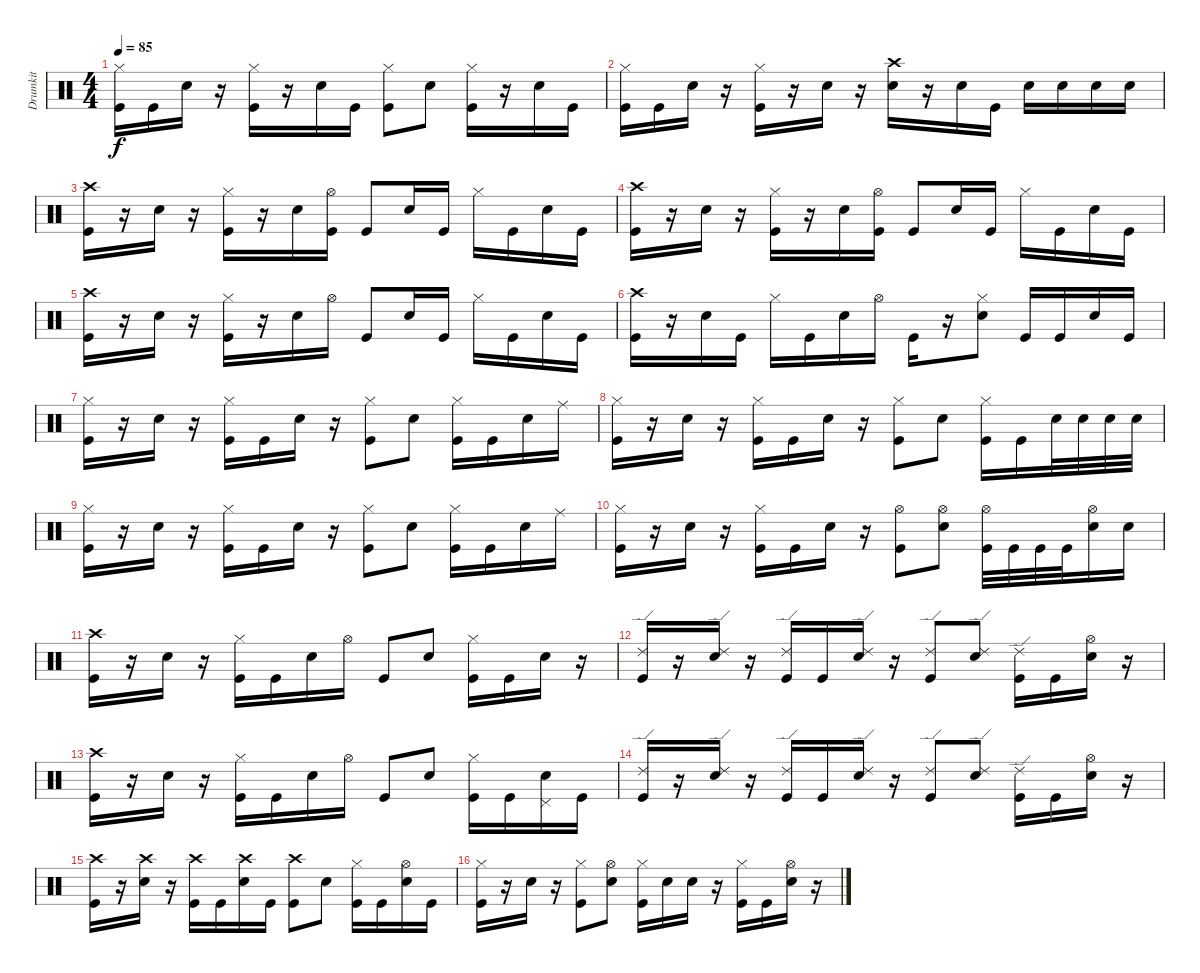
\track ("Drumkit" "Drumkit") {instrument percussion}
\staff {score}
\articulation defaults
\ts (4 4)
\tempo 85
\clef neutral
\ks c
("Kick (hit)" "Hi-Hat (closed)").16{dy f} "Kick (hit)".16 "Snare (hit) 2".16 r.16 ("Kick (hit)" "Hi-Hat (closed)").16 r.16 "Snare (hit) 2".16 "Kick (hit)".16 ("Kick (hit)" "Hi-Hat (closed)").8 "Snare (hit) 2".8 ("Kick (hit)" "Hi-Hat (closed)").16 r.16 "Snare (hit) 2".16 "Kick (hit)".16 |
("Kick (hit)" "Hi-Hat (closed)").16 "Kick (hit)".16 "Snare (hit) 2".16 r.16 ("Kick (hit)" "Hi-Hat (closed)").16 r.16 "Snare (hit) 2".16 r.16 ("Snare (hit) 2" "Crash high (hit)").16 r.16 "Snare (hit) 2".16 "Kick (hit)".16 "Snare (hit) 2".16 "Snare (hit) 2".16 "Snare (hit) 2".16 "Snare (hit) 2".16 |
("Kick (hit)" "Crash high (hit)").16 r.16 "Snare (hit) 2".16 r.16 ("Kick (hit)" "Hi-Hat (closed)").16 r.16 "Snare (hit) 2".16 ("Kick (hit)" "Hi-Hat (open)").16 "Kick (hit)".8 "Snare (hit) 2".16 "Kick (hit)".16 "Hi-Hat (closed)".16 "Kick (hit)".16 "Snare (hit) 2".16 "Kick (hit)".16 |
("Kick (hit)" "Crash high (hit)").16 r.16 "Snare (hit) 2".16 r.16 ("Kick (hit)" "Hi-Hat (closed)").16 r.16 "Snare (hit) 2".16 ("Kick (hit)" "Hi-Hat (open)").16 "Kick (hit)".8 "Snare (hit) 2".16 "Kick (hit)".16 "Hi-Hat (closed)".16 "Kick (hit)".16 "Snare (hit) 2".16 "Kick (hit)".16 |
("Kick (hit)" "Crash high (hit)").16 r.16 "Snare (hit) 2".16 r.16 ("Kick (hit)" "Hi-Hat (closed)").16 r.16 "Snare (hit) 2".16 "Hi-Hat (open)".16 "Kick (hit)".8 "Snare (hit) 2".16 "Kick (hit)".16 "Hi-Hat (closed)".16 "Kick (hit)".16 "Snare (hit) 2".16 "Kick (hit)".16 |
("Kick (hit)" "Crash high (hit)").16 r.16 "Snare (hit) 2".16 "Kick (hit)".16 "Hi-Hat (closed)".16 "Kick (hit)".16 "Snare (hit) 2".16 "Hi-Hat (open)".16 "Kick (hit)".16 r.16 ("Hi-Hat (closed)" "Snare (hit) 2").8 "Kick (hit)".16 "Kick (hit)".16 "Snare (hit) 2".16 "Kick (hit)".16 |
("Kick (hit)" "Hi-Hat (closed)").16 r.16 "Snare (hit) 2".16 r.16 ("Kick (hit)" "Hi-Hat (closed)").16 "Kick (hit)".16 "Snare (hit) 2".16 r.16 ("Kick (hit)" "Hi-Hat (closed)").8 "Snare (hit) 2".8 ("Kick (hit)" "Hi-Hat (closed)").16 "Kick (hit)".16 "Snare (hit) 2".16 "Ride (middle)".16 |
("Kick (hit)" "Hi-Hat (closed)").16 r.16 "Snare (hit) 2".16 r.16 ("Kick (hit)" "Hi-Hat (closed)").16 "Kick (hit)".16 "Snare (hit) 2".16 r.16 ("Kick (hit)" "Hi-Hat (closed)").8 "Snare (hit) 2".8 ("Kick (hit)" "Hi-Hat (closed)").16 "Kick (hit)".16 "Snare (hit) 2".32 "Snare (hit) 2".32 "Snare (hit) 2".32 "Snare (hit) 2".32 |
("Kick (hit)" "Hi-Hat (closed)").16 r.16 "Snare (hit) 2".16 r.16 ("Kick (hit)" "Hi-Hat (closed)").16 "Kick (hit)".16 "Snare (hit) 2".16 r.16 ("Kick (hit)" "Hi-Hat (closed)").8 "Snare (hit) 2".8 ("Kick (hit)" "Hi-Hat (closed)").16 "Kick (hit)".16 "Snare (hit) 2".16 "Ride (middle)".16 |
("Kick (hit)" "Hi-Hat (closed)").16 r.16 "Snare (hit) 2".16 r.16 ("Kick (hit)" "Hi-Hat (closed)").16 "Kick (hit)".16 "Snare (hit) 2".16 r.16 ("Kick (hit)" "Hi-Hat (open)").8 ("Snare (hit) 2" "Hi-Hat (open)").8 ("Kick (hit)" "Hi-Hat (open)").32 "Kick (hit)".32 "Kick (hit)".32 "Kick (hit)".32 ("Snare (hit) 2" "Hi-Hat (open)").16 "Snare (hit) 2".16 |
("Kick (hit)" "Crash high (hit)").16 r.16 "Snare (hit) 2".16 r.16 ("Kick (hit)" "Hi-Hat (closed)").16 "Kick (hit)".16 "Snare (hit) 2".16 "Hi-Hat (open)".16 "Kick (hit)".8 "Snare (hit) 2".8 ("Kick (hit)" "Hi-Hat (closed)").16 "Kick (hit)".16 "Snare (hit) 2".16 r.16 |
("Ride (edge) 2" "Kick (hit)").16 r.16 ("Ride (edge) 2" "Snare (hit) 2").16 r.16 ("Ride (edge) 2" "Kick (hit)").16 "Kick (hit)".16 ("Ride (edge) 2" "Snare (hit) 2").16 r.16 ("Ride (edge) 2" "Kick (hit)").8 ("Ride (edge) 2" "Snare (hit) 2").8 ("Ride (edge) 2" "Kick (hit)").16 "Kick (hit)".16 ("Snare (hit) 2" "Hi-Hat (open)").16 r.16 |
("Kick (hit)" "Crash high (hit)").16 r.16 "Snare (hit) 2".16 r.16 ("Kick (hit)" "Hi-Hat (closed)").16 "Kick (hit)".16 "Snare (hit) 2".16 "Hi-Hat (open)".16 "Kick (hit)".8 "Snare (hit) 2".8 ("Kick (hit)" "Hi-Hat (closed)").16 "Kick (hit)".16 ("Pedal Hi-Hat (hit)" "Snare (hit) 2").16 "Kick (hit)".16 |
("Ride (edge) 2" "Kick (hit)").16 r.16 ("Ride (edge) 2" "Snare (hit) 2").16 r.16 ("Ride (edge) 2" "Kick (hit)").16 "Kick (hit)".16 ("Ride (edge) 2" "Snare (hit) 2").16 r.16 ("Ride (edge) 2" "Kick (hit)").8 ("Ride (edge) 2" "Snare (hit) 2").8 ("Ride (edge) 2" "Kick (hit)").16 "Kick (hit)".16 ("Snare (hit) 2" "Hi-Hat (open)").16 r.16 |
("Kick (hit)" "Crash high (hit)").16 r.16 ("Snare (hit) 2" "Crash high (hit)").16 r.16 ("Kick (hit)" "Crash high (hit)").16 "Kick (hit)".16 ("Snare (hit) 2" "Crash high (hit)").16 "Kick (hit)".16 ("Kick (hit)" "Crash high (hit)").8 "Snare (hit) 2".8 ("Kick (hit)" "Hi-Hat (closed)").16 "Kick (hit)".16 ("Hi-Hat (open)" "Snare (hit) 2").16 "Kick (hit)".16 |
("Kick (hit)" "Hi-Hat (closed)").16 r.16 "Snare (hit) 2".16 r.16 ("Kick (hit)" "Hi-Hat (closed)").8 ("Snare (hit) 2" "Hi-Hat (open)").8 ("Kick (hit)" "Hi-Hat (closed)").16 "Snare (hit) 2".16 "Snare (hit) 2".16 r.16 ("Kick (hit)" "Hi-Hat (closed)").16 "Kick (hit)".16 ("Snare (hit) 2" "Hi-Hat (open)").16 r.16
